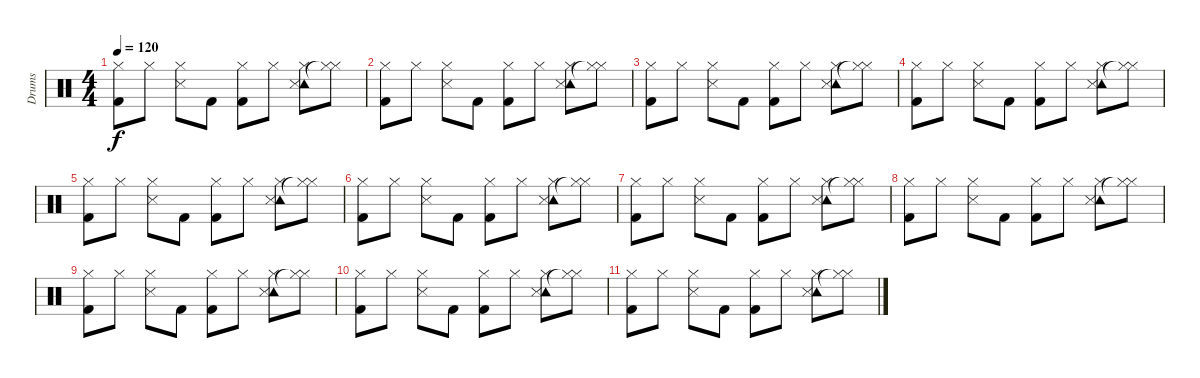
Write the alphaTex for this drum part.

\track ("Drums" "Drums") {instrument percussion}
\staff {score}
\articulation defaults
\ts (4 4)
\tempo 120
\clef neutral
\ks c
("Hi-Hat (closed)" "Kick (hit) 2").8{dy f} "Hi-Hat (closed)".8 ("Hi-Hat (closed)" "Snare (side stick) 3").8 "Kick (hit) 2".8 ("Hi-Hat (closed)" "Kick (hit) 2").8 "Hi-Hat (closed)".8 ("Tambourine (hit)" "Hi-Hat (closed)" "Snare (side stick) 3").8 ("Hi-Hat (closed)"{t} "Hi-Hat (closed)").8 |
("Hi-Hat (closed)" "Kick (hit) 2").8 "Hi-Hat (closed)".8 ("Hi-Hat (closed)" "Snare (side stick) 3").8 "Kick (hit) 2".8 ("Hi-Hat (closed)" "Kick (hit) 2").8 "Hi-Hat (closed)".8 ("Tambourine (hit)" "Hi-Hat (closed)" "Snare (side stick) 3").8 ("Hi-Hat (closed)"{t} "Hi-Hat (closed)").8 |
("Hi-Hat (closed)" "Kick (hit) 2").8 "Hi-Hat (closed)".8 ("Hi-Hat (closed)" "Snare (side stick) 3").8 "Kick (hit) 2".8 ("Hi-Hat (closed)" "Kick (hit) 2").8 "Hi-Hat (closed)".8 ("Tambourine (hit)" "Hi-Hat (closed)" "Snare (side stick) 3").8 ("Hi-Hat (closed)"{t} "Hi-Hat (closed)").8 |
("Hi-Hat (closed)" "Kick (hit) 2").8 "Hi-Hat (closed)".8 ("Hi-Hat (closed)" "Snare (side stick) 3").8 "Kick (hit) 2".8 ("Hi-Hat (closed)" "Kick (hit) 2").8 "Hi-Hat (closed)".8 ("Tambourine (hit)" "Hi-Hat (closed)" "Snare (side stick) 3").8 ("Hi-Hat (closed)"{t} "Hi-Hat (closed)").8 |
("Hi-Hat (closed)" "Kick (hit) 2").8 "Hi-Hat (closed)".8 ("Hi-Hat (closed)" "Snare (side stick) 3").8 "Kick (hit) 2".8 ("Hi-Hat (closed)" "Kick (hit) 2").8 "Hi-Hat (closed)".8 ("Tambourine (hit)" "Hi-Hat (closed)" "Snare (side stick) 3").8 ("Hi-Hat (closed)"{t} "Hi-Hat (closed)").8 |
("Hi-Hat (closed)" "Kick (hit) 2").8 "Hi-Hat (closed)".8 ("Hi-Hat (closed)" "Snare (side stick) 3").8 "Kick (hit) 2".8 ("Hi-Hat (closed)" "Kick (hit) 2").8 "Hi-Hat (closed)".8 ("Tambourine (hit)" "Hi-Hat (closed)" "Snare (side stick) 3").8 ("Hi-Hat (closed)"{t} "Hi-Hat (closed)").8 |
("Hi-Hat (closed)" "Kick (hit) 2").8 "Hi-Hat (closed)".8 ("Hi-Hat (closed)" "Snare (side stick) 3").8 "Kick (hit) 2".8 ("Hi-Hat (closed)" "Kick (hit) 2").8 "Hi-Hat (closed)".8 ("Tambourine (hit)" "Hi-Hat (closed)" "Snare (side stick) 3").8 ("Hi-Hat (closed)"{t} "Hi-Hat (closed)").8 |
("Hi-Hat (closed)" "Kick (hit) 2").8 "Hi-Hat (closed)".8 ("Hi-Hat (closed)" "Snare (side stick) 3").8 "Kick (hit) 2".8 ("Hi-Hat (closed)" "Kick (hit) 2").8 "Hi-Hat (closed)".8 ("Tambourine (hit)" "Hi-Hat (closed)" "Snare (side stick) 3").8 ("Hi-Hat (closed)"{t} "Hi-Hat (closed)").8 |
("Hi-Hat (closed)" "Kick (hit) 2").8 "Hi-Hat (closed)".8 ("Hi-Hat (closed)" "Snare (side stick) 3").8 "Kick (hit) 2".8 ("Hi-Hat (closed)" "Kick (hit) 2").8 "Hi-Hat (closed)".8 ("Tambourine (hit)" "Hi-Hat (closed)" "Snare (side stick) 3").8 ("Hi-Hat (closed)"{t} "Hi-Hat (closed)").8 |
("Hi-Hat (closed)" "Kick (hit) 2").8{volume 0} "Hi-Hat (closed)".8 ("Hi-Hat (closed)" "Snare (side stick) 3").8 "Kick (hit) 2".8 ("Hi-Hat (closed)" "Kick (hit) 2").8 "Hi-Hat (closed)".8 ("Tambourine (hit)" "Hi-Hat (closed)" "Snare (side stick) 3").8 ("Hi-Hat (closed)"{t} "Hi-Hat (closed)").8 |
("Hi-Hat (closed)" "Kick (hit) 2").8 "Hi-Hat (closed)".8 ("Hi-Hat (closed)" "Snare (side stick) 3").8 "Kick (hit) 2".8 ("Hi-Hat (closed)" "Kick (hit) 2").8 "Hi-Hat (closed)".8 ("Tambourine (hit)" "Hi-Hat (closed)" "Snare (side stick) 3").8 ("Hi-Hat (closed)"{t} "Hi-Hat (closed)").8
